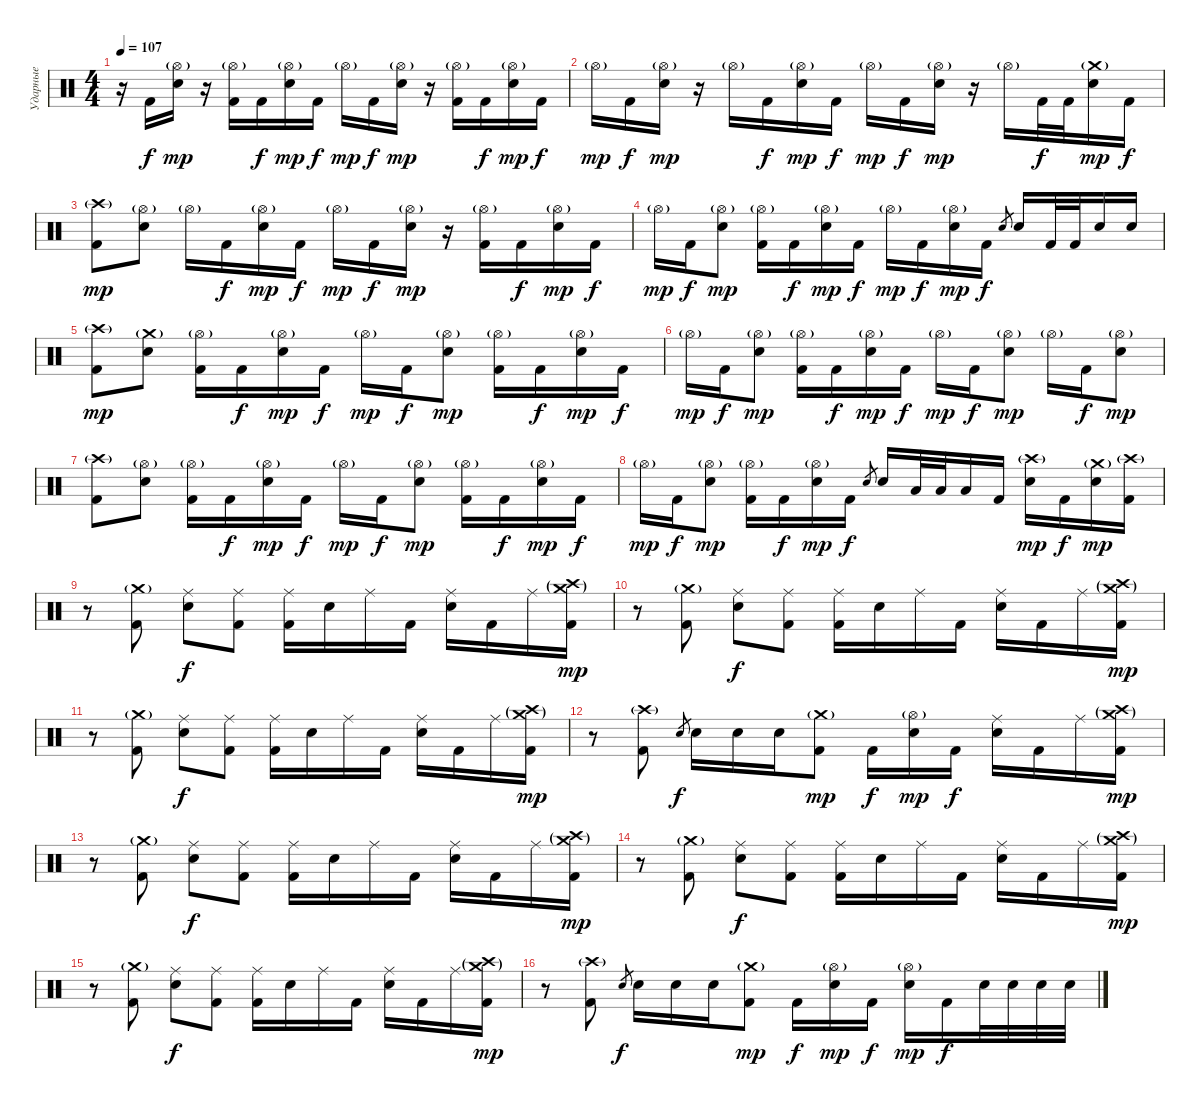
\track ("Ударные" "Ударные") {instrument percussion}
\staff {score}
\articulation defaults
\ts (4 4)
\tempo 107
\clef neutral
\ks c
r.16{dy mp} "Kick (hit) 2".16{dy f} ("Hi-Hat (open)"{g} "Electric Snare (hit)").16{dy mp} r.16 ("Hi-Hat (open)"{g} "Kick (hit) 2").16 "Kick (hit) 2".16{dy f} ("Hi-Hat (open)"{g} "Electric Snare (hit)").16{dy mp} "Kick (hit) 2".16{dy f} "Hi-Hat (open)"{g}.16{dy mp} "Kick (hit) 2".16{dy f} ("Hi-Hat (open)"{g} "Electric Snare (hit)").16{dy mp} r.16 ("Hi-Hat (open)"{g} "Kick (hit) 2").16 "Kick (hit) 2".16{dy f} ("Hi-Hat (open)"{g} "Electric Snare (hit)").16{dy mp} "Kick (hit) 2".16{dy f} |
"Hi-Hat (open)"{g}.16{dy mp} "Kick (hit) 2".16{dy f} ("Hi-Hat (open)"{g} "Electric Snare (hit)").16{dy mp} r.16 "Hi-Hat (open)"{g}.16 "Kick (hit) 2".16{dy f} ("Hi-Hat (open)"{g} "Electric Snare (hit)").16{dy mp} "Kick (hit) 2".16{dy f} "Hi-Hat (open)"{g}.16{dy mp} "Kick (hit) 2".16{dy f} ("Hi-Hat (open)"{g} "Electric Snare (hit)").16{dy mp} r.16 "Hi-Hat (open)"{g}.16 "Kick (hit) 2".32{dy f} "Kick (hit) 2".32 ("Crash medium (hit)"{g} "Electric Snare (hit)").16{dy mp} "Kick (hit) 2".16{dy f} |
("Crash high (hit)"{g} "Kick (hit) 2").8{dy mp} ("Hi-Hat (open)"{g} "Electric Snare (hit)").8 "Hi-Hat (open)"{g}.16 "Kick (hit) 2".16{dy f} ("Hi-Hat (open)"{g} "Electric Snare (hit)").16{dy mp} "Kick (hit) 2".16{dy f} "Hi-Hat (open)"{g}.16{dy mp} "Kick (hit) 2".16{dy f} ("Hi-Hat (open)"{g} "Electric Snare (hit)").16{dy mp} r.16 ("Hi-Hat (open)"{g} "Kick (hit) 2").16 "Kick (hit) 2".16{dy f} ("Hi-Hat (open)"{g} "Electric Snare (hit)").16{dy mp} "Kick (hit) 2".16{dy f} |
"Hi-Hat (open)"{g}.16{dy mp} "Kick (hit) 2".16{dy f} ("Hi-Hat (open)"{g} "Electric Snare (hit)").8{dy mp} ("Hi-Hat (open)"{g} "Kick (hit) 2").16 "Kick (hit) 2".16{dy f} ("Hi-Hat (open)"{g} "Electric Snare (hit)").16{dy mp} "Kick (hit) 2".16{dy f} "Hi-Hat (open)"{g}.16{dy mp} "Kick (hit) 2".16{dy f} ("Hi-Hat (open)"{g} "Electric Snare (hit)").16{dy mp} "Kick (hit) 2".16{dy f} "Electric Snare (hit)".8{gr} "Electric Snare (hit)".16 "Kick (hit) 2".32 "Kick (hit) 2".32 "Electric Snare (hit)".16 "Electric Snare (hit)".16 |
("Crash high (hit)"{g} "Kick (hit) 2").8{dy mp} ("Crash medium (hit)"{g} "Electric Snare (hit)").8 ("Hi-Hat (open)"{g} "Kick (hit) 2").16 "Kick (hit) 2".16{dy f} ("Hi-Hat (open)"{g} "Electric Snare (hit)").16{dy mp} "Kick (hit) 2".16{dy f} "Hi-Hat (open)"{g}.16{dy mp} "Kick (hit) 2".16{dy f} ("Hi-Hat (open)"{g} "Electric Snare (hit)").8{dy mp} ("Hi-Hat (open)"{g} "Kick (hit) 2").16 "Kick (hit) 2".16{dy f} ("Hi-Hat (open)"{g} "Electric Snare (hit)").16{dy mp} "Kick (hit) 2".16{dy f} |
"Hi-Hat (open)"{g}.16{dy mp} "Kick (hit) 2".16{dy f} ("Hi-Hat (open)"{g} "Electric Snare (hit)").8{dy mp} ("Hi-Hat (open)"{g} "Kick (hit) 2").16 "Kick (hit) 2".16{dy f} ("Hi-Hat (open)"{g} "Electric Snare (hit)").16{dy mp} "Kick (hit) 2".16{dy f} "Hi-Hat (open)"{g}.16{dy mp} "Kick (hit) 2".16{dy f} ("Hi-Hat (open)"{g} "Electric Snare (hit)").8{dy mp} "Hi-Hat (open)"{g}.16 "Kick (hit) 2".16{dy f} ("Hi-Hat (open)"{g} "Electric Snare (hit)").8{dy mp} |
("Crash high (hit)"{g} "Kick (hit) 2").8 ("Hi-Hat (open)"{g} "Electric Snare (hit)").8 ("Hi-Hat (open)"{g} "Kick (hit) 2").16 "Kick (hit) 2".16{dy f} ("Hi-Hat (open)"{g} "Electric Snare (hit)").16{dy mp} "Kick (hit) 2".16{dy f} "Hi-Hat (open)"{g}.16{dy mp} "Kick (hit) 2".16{dy f} ("Hi-Hat (open)"{g} "Electric Snare (hit)").8{dy mp} ("Hi-Hat (open)"{g} "Kick (hit) 2").16 "Kick (hit) 2".16{dy f} ("Hi-Hat (open)"{g} "Electric Snare (hit)").16{dy mp} "Kick (hit) 2".16{dy f} |
"Hi-Hat (open)"{g}.16{dy mp} "Kick (hit) 2".16{dy f} ("Hi-Hat (open)"{g} "Electric Snare (hit)").8{dy mp} ("Hi-Hat (open)"{g} "Kick (hit) 2").16 "Kick (hit) 2".16{dy f} ("Hi-Hat (open)"{g} "Electric Snare (hit)").16{dy mp} "Kick (hit) 2".16{dy f} "Electric Snare (hit)".8{gr} "Electric Snare (hit)".16 "Low Tom (hit)".32 "Low Tom (hit)".32 "Low Tom (hit)".16 "Kick (hit) 2".16 ("Crash high (hit)"{g} "Electric Snare (hit)").16{dy mp} "Kick (hit) 2".16{dy f} ("Crash medium (hit)"{g} "Electric Snare (hit)").16{dy mp} ("Crash high (hit)"{g} "Kick (hit) 2").16 |
r.8 ("Crash medium (hit)"{g} "Kick (hit) 2").8 ("Ride (middle)" "Electric Snare (hit)").8{dy f} ("Ride (middle)" "Kick (hit) 2").8 ("Ride (middle)" "Kick (hit) 2").16 "Electric Snare (hit)".16 "Ride (middle)".16 "Kick (hit) 2".16 ("Ride (middle)" "Electric Snare (hit)").16 "Kick (hit) 2".16 "Ride (middle)".16 ("Crash high (hit)"{g} "Crash medium (hit)"{g} "Kick (hit) 2").16{dy mp} |
r.8 ("Crash medium (hit)"{g} "Kick (hit) 2").8 ("Ride (middle)" "Electric Snare (hit)").8{dy f} ("Ride (middle)" "Kick (hit) 2").8 ("Ride (middle)" "Kick (hit) 2").16 "Electric Snare (hit)".16 "Ride (middle)".16 "Kick (hit) 2".16 ("Ride (middle)" "Electric Snare (hit)").16 "Kick (hit) 2".16 "Ride (middle)".16 ("Crash high (hit)"{g} "Crash medium (hit)"{g} "Kick (hit) 2").16{dy mp} |
r.8 ("Crash medium (hit)"{g} "Kick (hit) 2").8 ("Ride (middle)" "Electric Snare (hit)").8{dy f} ("Ride (middle)" "Kick (hit) 2").8 ("Ride (middle)" "Kick (hit) 2").16 "Electric Snare (hit)".16 "Ride (middle)".16 "Kick (hit) 2".16 ("Ride (middle)" "Electric Snare (hit)").16 "Kick (hit) 2".16 "Ride (middle)".16 ("Crash high (hit)"{g} "Crash medium (hit)"{g} "Kick (hit) 2").16{dy mp} |
r.8 ("Crash high (hit)"{g} "Kick (hit) 2").8 "Electric Snare (hit)".8{gr dy f} "Electric Snare (hit)".16 "Electric Snare (hit)".16 "Electric Snare (hit)".16 ("Crash medium (hit)"{g} "Kick (hit) 2").8{dy mp} "Kick (hit) 2".16{dy f} ("Hi-Hat (open)"{g} "Electric Snare (hit)").16{dy mp} "Kick (hit) 2".16{dy f} ("Ride (middle)" "Electric Snare (hit)").16 "Kick (hit) 2".16 "Ride (middle)".16 ("Crash medium (hit)"{g} "Crash high (hit)"{g} "Kick (hit) 2").16{dy mp} |
r.8 ("Crash medium (hit)"{g} "Kick (hit) 2").8 ("Ride (middle)" "Electric Snare (hit)").8{dy f} ("Ride (middle)" "Kick (hit) 2").8 ("Ride (middle)" "Kick (hit) 2").16 "Electric Snare (hit)".16 "Ride (middle)".16 "Kick (hit) 2".16 ("Ride (middle)" "Electric Snare (hit)").16 "Kick (hit) 2".16 "Ride (middle)".16 ("Crash high (hit)"{g} "Crash medium (hit)"{g} "Kick (hit) 2").16{dy mp} |
r.8 ("Crash medium (hit)"{g} "Kick (hit) 2").8 ("Ride (middle)" "Electric Snare (hit)").8{dy f} ("Ride (middle)" "Kick (hit) 2").8 ("Ride (middle)" "Kick (hit) 2").16 "Electric Snare (hit)".16 "Ride (middle)".16 "Kick (hit) 2".16 ("Ride (middle)" "Electric Snare (hit)").16 "Kick (hit) 2".16 "Ride (middle)".16 ("Crash high (hit)"{g} "Crash medium (hit)"{g} "Kick (hit) 2").16{dy mp} |
r.8 ("Crash medium (hit)"{g} "Kick (hit) 2").8 ("Ride (middle)" "Electric Snare (hit)").8{dy f} ("Ride (middle)" "Kick (hit) 2").8 ("Ride (middle)" "Kick (hit) 2").16 "Electric Snare (hit)".16 "Ride (middle)".16 "Kick (hit) 2".16 ("Ride (middle)" "Electric Snare (hit)").16 "Kick (hit) 2".16 "Ride (middle)".16 ("Crash high (hit)"{g} "Crash medium (hit)"{g} "Kick (hit) 2").16{dy mp} |
r.8 ("Crash high (hit)"{g} "Kick (hit) 2").8 "Electric Snare (hit)".8{gr dy f} "Electric Snare (hit)".16 "Electric Snare (hit)".16 "Electric Snare (hit)".16 ("Crash medium (hit)"{g} "Kick (hit) 2").8{dy mp} "Kick (hit) 2".16{dy f} ("Hi-Hat (open)"{g} "Electric Snare (hit)").16{dy mp} "Kick (hit) 2".16{dy f} ("Hi-Hat (open)"{g} "Electric Snare (hit)").16{dy mp} "Kick (hit) 2".16{dy f} "Electric Snare (hit)".32 "Electric Snare (hit)".32 "Electric Snare (hit)".32 "Electric Snare (hit)".32
